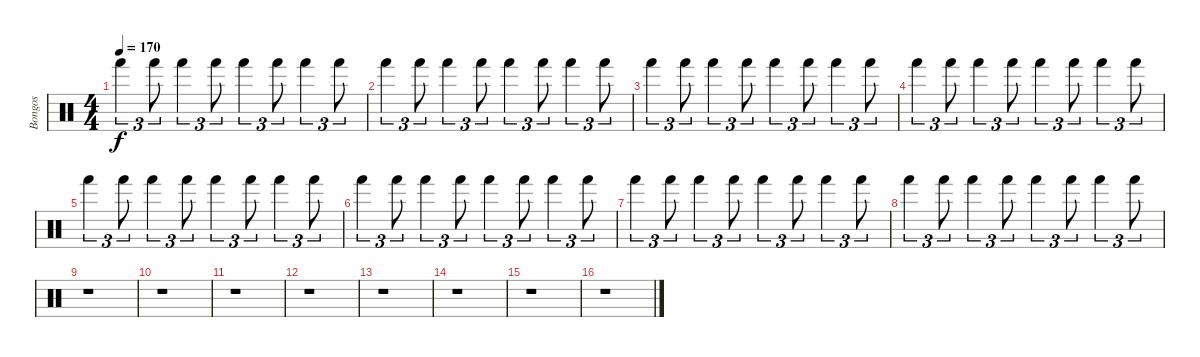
\track ("Bongos" "Bongos") {instrument percussion}
\staff {score}
\articulation defaults
\ts (4 4)
\tempo 170
\clef neutral
\ks c "Hand (hit)".4{tu (3 2) dy f} "Hand (hit)".8{tu (3 2)} "Hand (hit)".4{tu (3 2)} "Hand (hit)".8{tu (3 2)} "Hand (hit)".4{tu (3 2)} "Hand (hit)".8{tu (3 2)} "Hand (hit)".4{tu (3 2)} "Hand (hit)".8{tu (3 2)}
|
"Hand (hit)".4{tu (3 2)} "Hand (hit)".8{tu (3 2)} "Hand (hit)".4{tu (3 2)} "Hand (hit)".8{tu (3 2)} "Hand (hit)".4{tu (3 2)} "Hand (hit)".8{tu (3 2)} "Hand (hit)".4{tu (3 2)} "Hand (hit)".8{tu (3 2)} |
"Hand (hit)".4{tu (3 2)} "Hand (hit)".8{tu (3 2)} "Hand (hit)".4{tu (3 2)} "Hand (hit)".8{tu (3 2)} "Hand (hit)".4{tu (3 2)} "Hand (hit)".8{tu (3 2)} "Hand (hit)".4{tu (3 2)} "Hand (hit)".8{tu (3 2)} |
"Hand (hit)".4{tu (3 2)} "Hand (hit)".8{tu (3 2)} "Hand (hit)".4{tu (3 2)} "Hand (hit)".8{tu (3 2)} "Hand (hit)".4{tu (3 2)} "Hand (hit)".8{tu (3 2)} "Hand (hit)".4{tu (3 2)} "Hand (hit)".8{tu (3 2)} |
"Hand (hit)".4{tu (3 2)} "Hand (hit)".8{tu (3 2)} "Hand (hit)".4{tu (3 2)} "Hand (hit)".8{tu (3 2)} "Hand (hit)".4{tu (3 2)} "Hand (hit)".8{tu (3 2)} "Hand (hit)".4{tu (3 2)} "Hand (hit)".8{tu (3 2)} |
"Hand (hit)".4{tu (3 2)} "Hand (hit)".8{tu (3 2)} "Hand (hit)".4{tu (3 2)} "Hand (hit)".8{tu (3 2)} "Hand (hit)".4{tu (3 2)} "Hand (hit)".8{tu (3 2)} "Hand (hit)".4{tu (3 2)} "Hand (hit)".8{tu (3 2)} |
"Hand (hit)".4{tu (3 2)} "Hand (hit)".8{tu (3 2)} "Hand (hit)".4{tu (3 2)} "Hand (hit)".8{tu (3 2)} "Hand (hit)".4{tu (3 2)} "Hand (hit)".8{tu (3 2)} "Hand (hit)".4{tu (3 2)} "Hand (hit)".8{tu (3 2)} |
"Hand (hit)".4{tu (3 2)} "Hand (hit)".8{tu (3 2)} "Hand (hit)".4{tu (3 2)} "Hand (hit)".8{tu (3 2)} "Hand (hit)".4{tu (3 2)} "Hand (hit)".8{tu (3 2)} "Hand (hit)".4{tu (3 2)} "Hand (hit)".8{tu (3 2)} |
r.1 |
r.1 |
r.1 |
r.1 |
r.1 |
r.1 |
r.1 |
r.1
